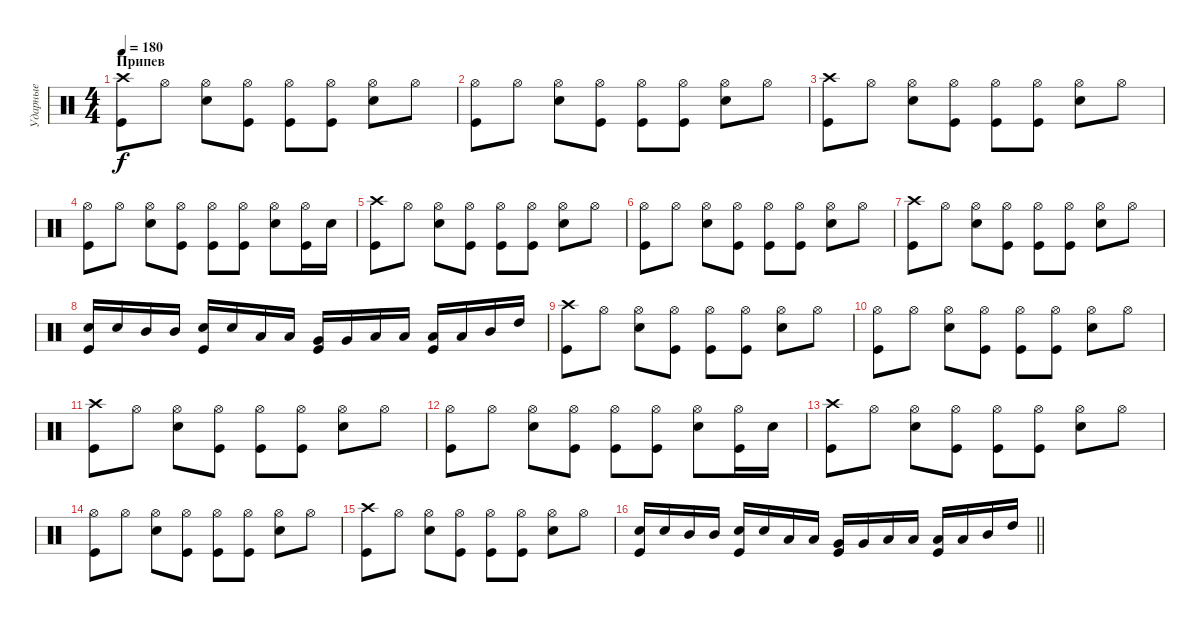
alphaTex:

\track ("Ударные" "Ударные") {instrument percussion}
\staff {score}
\articulation defaults
\ts (4 4)
\section ("" "Припев")
\tempo 180
\clef neutral
\ks c
("Crash high (hit)" "Kick (hit)").8{dy f} "Hi-Hat (open)".8 ("Hi-Hat (open)" "Snare (hit) 2").8 ("Hi-Hat (open)" "Kick (hit)").8 ("Hi-Hat (open)" "Kick (hit)").8 ("Hi-Hat (open)" "Kick (hit)").8 ("Hi-Hat (open)" "Snare (hit) 2").8 "Hi-Hat (open)".8 |
("Hi-Hat (open)" "Kick (hit)").8 "Hi-Hat (open)".8 ("Hi-Hat (open)" "Snare (hit) 2").8 ("Hi-Hat (open)" "Kick (hit)").8 ("Hi-Hat (open)" "Kick (hit)").8 ("Hi-Hat (open)" "Kick (hit)").8 ("Hi-Hat (open)" "Snare (hit) 2").8 "Hi-Hat (open)".8 |
("Crash high (hit)" "Kick (hit)").8 "Hi-Hat (open)".8 ("Hi-Hat (open)" "Snare (hit) 2").8 ("Hi-Hat (open)" "Kick (hit)").8 ("Hi-Hat (open)" "Kick (hit)").8 ("Hi-Hat (open)" "Kick (hit)").8 ("Hi-Hat (open)" "Snare (hit) 2").8 "Hi-Hat (open)".8 |
("Hi-Hat (open)" "Kick (hit)").8 "Hi-Hat (open)".8 ("Hi-Hat (open)" "Snare (hit) 2").8 ("Hi-Hat (open)" "Kick (hit)").8 ("Hi-Hat (open)" "Kick (hit)").8 ("Hi-Hat (open)" "Kick (hit)").8 ("Hi-Hat (open)" "Snare (hit) 2").8 ("Hi-Hat (open)" "Kick (hit)").16 "Snare (hit) 2".16 |
("Crash high (hit)" "Kick (hit)").8 "Hi-Hat (open)".8 ("Hi-Hat (open)" "Snare (hit) 2").8 ("Hi-Hat (open)" "Kick (hit)").8 ("Hi-Hat (open)" "Kick (hit)").8 ("Hi-Hat (open)" "Kick (hit)").8 ("Hi-Hat (open)" "Snare (hit) 2").8 "Hi-Hat (open)".8 |
("Hi-Hat (open)" "Kick (hit)").8 "Hi-Hat (open)".8 ("Hi-Hat (open)" "Snare (hit) 2").8 ("Hi-Hat (open)" "Kick (hit)").8 ("Hi-Hat (open)" "Kick (hit)").8 ("Hi-Hat (open)" "Kick (hit)").8 ("Hi-Hat (open)" "Snare (hit) 2").8 "Hi-Hat (open)".8 |
("Crash high (hit)" "Kick (hit)").8 "Hi-Hat (open)".8 ("Hi-Hat (open)" "Snare (hit) 2").8 ("Hi-Hat (open)" "Kick (hit)").8 ("Hi-Hat (open)" "Kick (hit)").8 ("Hi-Hat (open)" "Kick (hit)").8 ("Hi-Hat (open)" "Snare (hit) 2").8 "Hi-Hat (open)".8 |
("Snare (hit) 2" "Kick (hit)").16 "Snare (hit) 2".16 "Mid Tom (hit)".16 "Mid Tom (hit)".16 ("Snare (hit) 2" "Kick (hit)").16 "Snare (hit) 2".16 "Low Tom (hit)".16 "Low Tom (hit)".16 ("Very Low Tom (hit)" "Kick (hit)").16 "Very Low Tom (hit)".16 "Low Tom (hit)".16 "Low Tom (hit)".16 ("Low Floor Tom (hit)" "Kick (hit)").16 "Low Floor Tom (hit)".16 "Mid Tom (hit)".16 "High Tom (hit)".16 |
("Crash high (hit)" "Kick (hit)").8 "Hi-Hat (open)".8 ("Hi-Hat (open)" "Snare (hit) 2").8 ("Hi-Hat (open)" "Kick (hit)").8 ("Hi-Hat (open)" "Kick (hit)").8 ("Hi-Hat (open)" "Kick (hit)").8 ("Hi-Hat (open)" "Snare (hit) 2").8 "Hi-Hat (open)".8 |
("Hi-Hat (open)" "Kick (hit)").8 "Hi-Hat (open)".8 ("Hi-Hat (open)" "Snare (hit) 2").8 ("Hi-Hat (open)" "Kick (hit)").8 ("Hi-Hat (open)" "Kick (hit)").8 ("Hi-Hat (open)" "Kick (hit)").8 ("Hi-Hat (open)" "Snare (hit) 2").8 "Hi-Hat (open)".8 |
("Crash high (hit)" "Kick (hit)").8 "Hi-Hat (open)".8 ("Hi-Hat (open)" "Snare (hit) 2").8 ("Hi-Hat (open)" "Kick (hit)").8 ("Hi-Hat (open)" "Kick (hit)").8 ("Hi-Hat (open)" "Kick (hit)").8 ("Hi-Hat (open)" "Snare (hit) 2").8 "Hi-Hat (open)".8 |
("Hi-Hat (open)" "Kick (hit)").8 "Hi-Hat (open)".8 ("Hi-Hat (open)" "Snare (hit) 2").8 ("Hi-Hat (open)" "Kick (hit)").8 ("Hi-Hat (open)" "Kick (hit)").8 ("Hi-Hat (open)" "Kick (hit)").8 ("Hi-Hat (open)" "Snare (hit) 2").8 ("Hi-Hat (open)" "Kick (hit)").16 "Snare (hit) 2".16 |
("Crash high (hit)" "Kick (hit)").8 "Hi-Hat (open)".8 ("Hi-Hat (open)" "Snare (hit) 2").8 ("Hi-Hat (open)" "Kick (hit)").8 ("Hi-Hat (open)" "Kick (hit)").8 ("Hi-Hat (open)" "Kick (hit)").8 ("Hi-Hat (open)" "Snare (hit) 2").8 "Hi-Hat (open)".8 |
("Hi-Hat (open)" "Kick (hit)").8 "Hi-Hat (open)".8 ("Hi-Hat (open)" "Snare (hit) 2").8 ("Hi-Hat (open)" "Kick (hit)").8 ("Hi-Hat (open)" "Kick (hit)").8 ("Hi-Hat (open)" "Kick (hit)").8 ("Hi-Hat (open)" "Snare (hit) 2").8 "Hi-Hat (open)".8 |
("Crash high (hit)" "Kick (hit)").8 "Hi-Hat (open)".8 ("Hi-Hat (open)" "Snare (hit) 2").8 ("Hi-Hat (open)" "Kick (hit)").8 ("Hi-Hat (open)" "Kick (hit)").8 ("Hi-Hat (open)" "Kick (hit)").8 ("Hi-Hat (open)" "Snare (hit) 2").8 "Hi-Hat (open)".8 |
\barLineRight lightlight
("Snare (hit) 2" "Kick (hit)").16 "Snare (hit) 2".16 "Mid Tom (hit)".16 "Mid Tom (hit)".16 ("Snare (hit) 2" "Kick (hit)").16 "Snare (hit) 2".16 "Low Tom (hit)".16 "Low Tom (hit)".16 ("Very Low Tom (hit)" "Kick (hit)").16 "Very Low Tom (hit)".16 "Low Tom (hit)".16 "Low Tom (hit)".16 ("Low Floor Tom (hit)" "Kick (hit)").16 "Low Floor Tom (hit)".16 "Mid Tom (hit)".16 "High Tom (hit)".16
